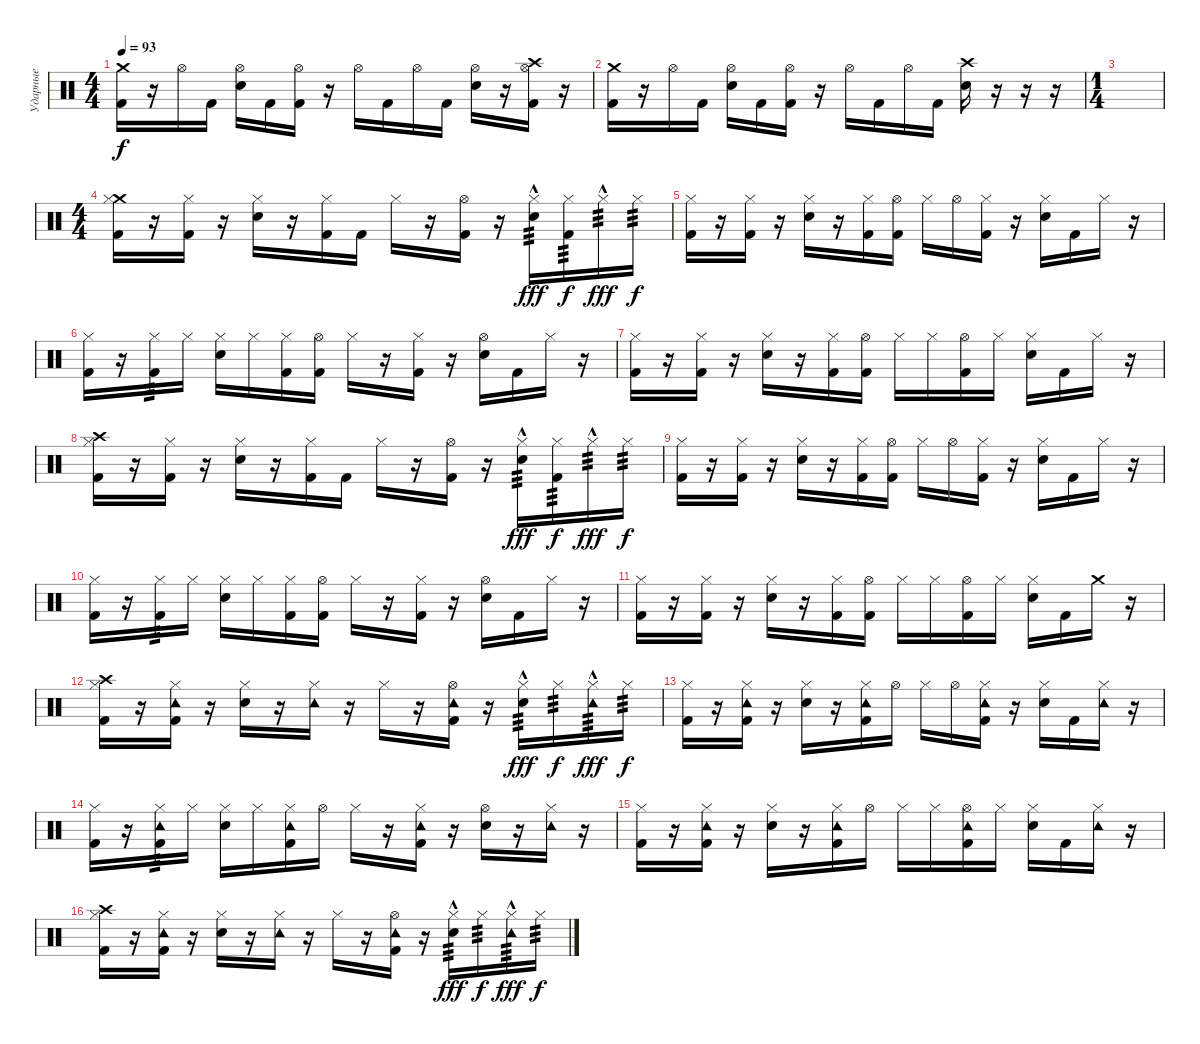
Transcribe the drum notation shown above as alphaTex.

\track ("Ударные" "Ударные") {instrument percussion}
\staff {score}
\articulation defaults
\ts (4 4)
\tempo 93
\clef neutral
\ks c
("Crash medium (hit)" "Kick (hit) 2").16{dy f} r.16 "Hi-Hat (open)".16 "Kick (hit) 2".16 ("Hi-Hat (open)" "Electric Snare (hit)").16 "Kick (hit) 2".16 ("Hi-Hat (open)" "Kick (hit) 2").16 r.16 "Hi-Hat (open)".16 "Kick (hit) 2".16 "Hi-Hat (open)".16 "Kick (hit) 2".16 ("Hi-Hat (open)" "Electric Snare (hit)").16 r.16 ("Crash high (hit)" "Hi-Hat (open)" "Kick (hit) 2").16 r.16 |
("Crash medium (hit)" "Kick (hit) 2").16 r.16 "Hi-Hat (open)".16 "Kick (hit) 2".16 ("Hi-Hat (open)" "Electric Snare (hit)").16 "Kick (hit) 2".16 ("Hi-Hat (open)" "Kick (hit) 2").16 r.16 "Hi-Hat (open)".16 "Kick (hit) 2".16 "Hi-Hat (open)".16 "Kick (hit) 2".16 ("Crash high (hit)" "Electric Snare (hit)").16 r.16 r.16 r.16 |
\ts (1 4)
|
\ts (4 4)
("Crash medium (hit)" "Hi-Hat (closed)" "Kick (hit) 2").16 r.16 ("Hi-Hat (closed)" "Kick (hit) 2").16 r.16 ("Hi-Hat (closed)" "Electric Snare (hit)").16 r.16 ("Hi-Hat (closed)" "Kick (hit) 2").16 "Kick (hit) 2".16 "Hi-Hat (closed)".16 r.16 ("Hi-Hat (open)" "Kick (hit) 2").16 r.16 ("Hi-Hat (closed)"{hac} "Electric Snare (hit)").16{tp 3 dy fff} ("Hi-Hat (closed)" "Kick (hit) 2").16{tp 3 dy f} "Hi-Hat (closed)"{hac}.16{tp 3 dy fff} "Hi-Hat (closed)".16{tp 3 dy f} |
("Hi-Hat (closed)" "Kick (hit) 2").16 r.16 ("Hi-Hat (closed)" "Kick (hit) 2").16 r.16 ("Hi-Hat (closed)" "Electric Snare (hit)").16 r.16 ("Hi-Hat (closed)" "Kick (hit) 2").16 ("Hi-Hat (open)" "Kick (hit) 2").16 "Hi-Hat (closed)".16 "Hi-Hat (open)".16 ("Hi-Hat (closed)" "Kick (hit) 2").16 r.16 ("Hi-Hat (closed)" "Electric Snare (hit)").16 "Kick (hit) 2".16 "Hi-Hat (closed)".16 r.16 |
("Hi-Hat (closed)" "Kick (hit) 2").16 r.16 ("Hi-Hat (closed)" "Kick (hit) 2").16{tp 3} "Hi-Hat (closed)".16 ("Hi-Hat (closed)" "Electric Snare (hit)").16 "Hi-Hat (closed)".16 ("Hi-Hat (closed)" "Kick (hit) 2").16 ("Hi-Hat (open)" "Kick (hit) 2").16 "Hi-Hat (closed)".16 r.16 ("Hi-Hat (closed)" "Kick (hit) 2").16 r.16 ("Hi-Hat (open)" "Electric Snare (hit)").16 "Kick (hit) 2".16 "Hi-Hat (closed)".16 r.16 |
("Hi-Hat (closed)" "Kick (hit) 2").16 r.16 ("Hi-Hat (closed)" "Kick (hit) 2").16 r.16 ("Hi-Hat (closed)" "Electric Snare (hit)").16 r.16 ("Hi-Hat (closed)" "Kick (hit) 2").16 ("Hi-Hat (open)" "Kick (hit) 2").16 "Hi-Hat (closed)".16 "Hi-Hat (closed)".16 ("Hi-Hat (open)" "Kick (hit) 2").16 "Hi-Hat (closed)".16 ("Hi-Hat (closed)" "Electric Snare (hit)").16 "Kick (hit) 2".16 "Hi-Hat (closed)".16 r.16 |
("Crash high (hit)" "Hi-Hat (closed)" "Kick (hit) 2").16 r.16 ("Hi-Hat (closed)" "Kick (hit) 2").16 r.16 ("Hi-Hat (closed)" "Electric Snare (hit)").16 r.16 ("Hi-Hat (closed)" "Kick (hit) 2").16 "Kick (hit) 2".16 "Hi-Hat (closed)".16 r.16 ("Hi-Hat (open)" "Kick (hit) 2").16 r.16 ("Hi-Hat (closed)"{hac} "Electric Snare (hit)").16{tp 3 dy fff} ("Hi-Hat (closed)" "Kick (hit) 2").16{tp 3 dy f} "Hi-Hat (closed)"{hac}.16{tp 3 dy fff} "Hi-Hat (closed)".16{tp 3 dy f} |
("Hi-Hat (closed)" "Kick (hit) 2").16 r.16 ("Hi-Hat (closed)" "Kick (hit) 2").16 r.16 ("Hi-Hat (closed)" "Electric Snare (hit)").16 r.16 ("Hi-Hat (closed)" "Kick (hit) 2").16 ("Hi-Hat (open)" "Kick (hit) 2").16 "Hi-Hat (closed)".16 "Hi-Hat (open)".16 ("Hi-Hat (closed)" "Kick (hit) 2").16 r.16 ("Hi-Hat (closed)" "Electric Snare (hit)").16 "Kick (hit) 2".16 "Hi-Hat (closed)".16 r.16 |
("Hi-Hat (closed)" "Kick (hit) 2").16 r.16 ("Hi-Hat (closed)" "Kick (hit) 2").16{tp 3} "Hi-Hat (closed)".16 ("Hi-Hat (closed)" "Electric Snare (hit)").16 "Hi-Hat (closed)".16 ("Hi-Hat (closed)" "Kick (hit) 2").16 ("Hi-Hat (open)" "Kick (hit) 2").16 "Hi-Hat (closed)".16 r.16 ("Hi-Hat (closed)" "Kick (hit) 2").16 r.16 ("Hi-Hat (open)" "Electric Snare (hit)").16 "Kick (hit) 2".16 "Hi-Hat (closed)".16 r.16 |
("Hi-Hat (closed)" "Kick (hit) 2").16 r.16 ("Hi-Hat (closed)" "Kick (hit) 2").16 r.16 ("Hi-Hat (closed)" "Electric Snare (hit)").16 r.16 ("Hi-Hat (closed)" "Kick (hit) 2").16 ("Hi-Hat (open)" "Kick (hit) 2").16 "Hi-Hat (closed)".16 "Hi-Hat (closed)".16 ("Hi-Hat (open)" "Kick (hit) 2").16 "Hi-Hat (closed)".16 ("Hi-Hat (closed)" "Electric Snare (hit)").16 "Kick (hit) 2".16 "Crash medium (hit)".16 r.16 |
("Crash high (hit)" "Hi-Hat (closed)" "Kick (hit) 2").16 r.16 ("Tambourine (hit)" "Hi-Hat (closed)" "Kick (hit) 2").16 r.16 ("Hi-Hat (closed)" "Electric Snare (hit)").16 r.16 ("Tambourine (hit)" "Hi-Hat (closed)").16 r.16 "Hi-Hat (closed)".16 r.16 ("Tambourine (hit)" "Hi-Hat (open)" "Kick (hit) 2").16 r.16 ("Hi-Hat (closed)"{hac} "Electric Snare (hit)").16{tp 3 dy fff} "Hi-Hat (closed)".16{tp 3 dy f} ("Tambourine (hit)" "Hi-Hat (closed)"{hac}).16{tp 3 dy fff} "Hi-Hat (closed)".16{tp 3 dy f} |
("Hi-Hat (closed)" "Kick (hit) 2").16 r.16 ("Tambourine (hit)" "Hi-Hat (closed)" "Kick (hit) 2").16 r.16 ("Hi-Hat (closed)" "Electric Snare (hit)").16 r.16 ("Tambourine (hit)" "Hi-Hat (closed)" "Kick (hit) 2").16 "Hi-Hat (open)".16 "Hi-Hat (closed)".16 "Hi-Hat (open)".16 ("Tambourine (hit)" "Hi-Hat (closed)" "Kick (hit) 2").16 r.16 ("Hi-Hat (closed)" "Electric Snare (hit)").16 "Kick (hit) 2".16 ("Tambourine (hit)" "Hi-Hat (closed)").16 r.16 |
("Hi-Hat (closed)" "Kick (hit) 2").16 r.16 ("Tambourine (hit)" "Hi-Hat (closed)" "Kick (hit) 2").16{tp 3} "Hi-Hat (closed)".16 ("Hi-Hat (closed)" "Electric Snare (hit)").16 "Hi-Hat (closed)".16 ("Tambourine (hit)" "Hi-Hat (closed)" "Kick (hit) 2").16 "Hi-Hat (open)".16 "Hi-Hat (closed)".16 r.16 ("Tambourine (hit)" "Hi-Hat (closed)" "Kick (hit) 2").16 r.16 ("Hi-Hat (open)" "Electric Snare (hit)").16 r.16 ("Tambourine (hit)" "Hi-Hat (closed)").16 r.16 |
("Hi-Hat (closed)" "Kick (hit) 2").16 r.16 ("Tambourine (hit)" "Hi-Hat (closed)" "Kick (hit) 2").16 r.16 ("Hi-Hat (closed)" "Electric Snare (hit)").16 r.16 ("Tambourine (hit)" "Hi-Hat (closed)" "Kick (hit) 2").16 "Hi-Hat (open)".16 "Hi-Hat (closed)".16 "Hi-Hat (closed)".16 ("Tambourine (hit)" "Hi-Hat (open)" "Kick (hit) 2").16 "Hi-Hat (closed)".16 ("Hi-Hat (closed)" "Electric Snare (hit)").16 "Kick (hit) 2".16 ("Tambourine (hit)" "Hi-Hat (closed)").16 r.16 |
("Crash high (hit)" "Hi-Hat (closed)" "Kick (hit) 2").16 r.16 ("Tambourine (hit)" "Hi-Hat (closed)" "Kick (hit) 2").16 r.16 ("Hi-Hat (closed)" "Electric Snare (hit)").16 r.16 ("Tambourine (hit)" "Hi-Hat (closed)").16 r.16 "Hi-Hat (closed)".16 r.16 ("Tambourine (hit)" "Hi-Hat (open)" "Kick (hit) 2").16 r.16 ("Hi-Hat (closed)"{hac} "Electric Snare (hit)").16{tp 3 dy fff} "Hi-Hat (closed)".16{tp 3 dy f} ("Tambourine (hit)" "Hi-Hat (closed)"{hac}).16{tp 3 dy fff} "Hi-Hat (closed)".16{tp 3 dy f}
